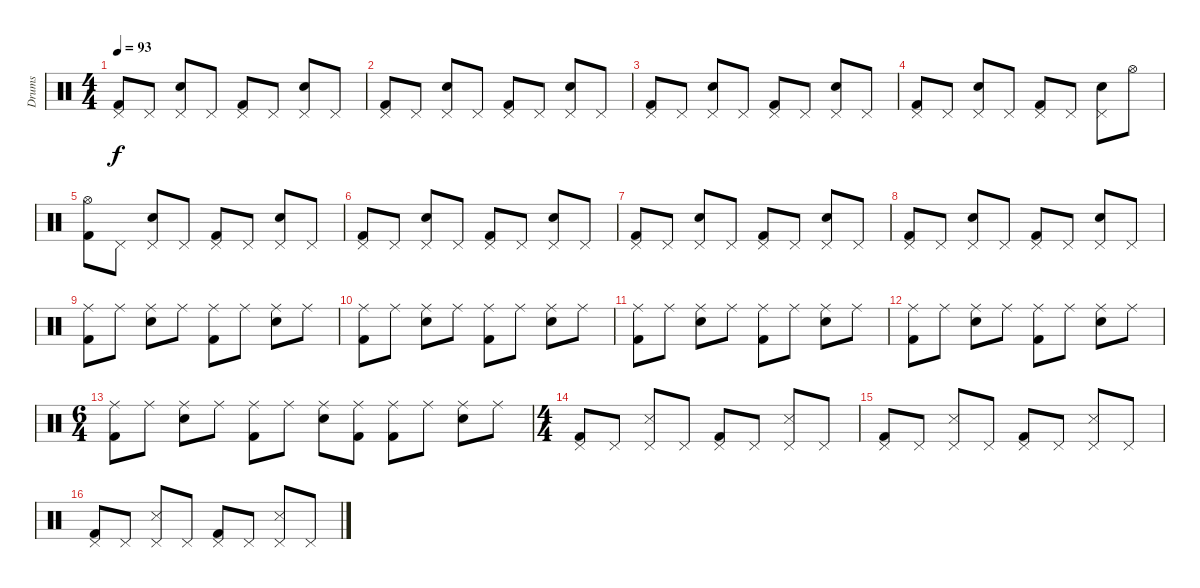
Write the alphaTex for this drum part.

\track ("Drums" "Drums") {instrument percussion}
\staff {score}
\articulation defaults
\ts (4 4)
\tempo 93
\clef neutral
\ks c
("Pedal Hi-Hat (hit)" "Kick (hit) 2").8{dy f} "Pedal Hi-Hat (hit)".8 ("Pedal Hi-Hat (hit)" "Electric Snare (hit)").8 "Pedal Hi-Hat (hit)".8 ("Pedal Hi-Hat (hit)" "Kick (hit) 2").8 "Pedal Hi-Hat (hit)".8 ("Pedal Hi-Hat (hit)" "Electric Snare (hit)").8 "Pedal Hi-Hat (hit)".8 |
("Pedal Hi-Hat (hit)" "Kick (hit) 2").8 "Pedal Hi-Hat (hit)".8 ("Pedal Hi-Hat (hit)" "Electric Snare (hit)").8 "Pedal Hi-Hat (hit)".8 ("Pedal Hi-Hat (hit)" "Kick (hit) 2").8 "Pedal Hi-Hat (hit)".8 ("Pedal Hi-Hat (hit)" "Electric Snare (hit)").8 "Pedal Hi-Hat (hit)".8 |
("Pedal Hi-Hat (hit)" "Kick (hit) 2").8 "Pedal Hi-Hat (hit)".8 ("Pedal Hi-Hat (hit)" "Electric Snare (hit)").8 "Pedal Hi-Hat (hit)".8 ("Pedal Hi-Hat (hit)" "Kick (hit) 2").8 "Pedal Hi-Hat (hit)".8 ("Pedal Hi-Hat (hit)" "Electric Snare (hit)").8 "Pedal Hi-Hat (hit)".8 |
("Pedal Hi-Hat (hit)" "Kick (hit) 2").8 "Pedal Hi-Hat (hit)".8 ("Pedal Hi-Hat (hit)" "Electric Snare (hit)").8 "Pedal Hi-Hat (hit)".8 ("Pedal Hi-Hat (hit)" "Kick (hit) 2").8 "Pedal Hi-Hat (hit)".8 ("Pedal Hi-Hat (hit)" "Electric Snare (hit)").8 "Hi-Hat (open)".8 |
("Hi-Hat (open)" "Kick (hit) 2").8 "Pedal Hi-Hat (hit)".8 ("Pedal Hi-Hat (hit)" "Electric Snare (hit)").8 "Pedal Hi-Hat (hit)".8 ("Pedal Hi-Hat (hit)" "Kick (hit) 2").8 "Pedal Hi-Hat (hit)".8 ("Pedal Hi-Hat (hit)" "Electric Snare (hit)").8 "Pedal Hi-Hat (hit)".8 |
("Pedal Hi-Hat (hit)" "Kick (hit) 2").8 "Pedal Hi-Hat (hit)".8 ("Pedal Hi-Hat (hit)" "Electric Snare (hit)").8 "Pedal Hi-Hat (hit)".8 ("Pedal Hi-Hat (hit)" "Kick (hit) 2").8 "Pedal Hi-Hat (hit)".8 ("Pedal Hi-Hat (hit)" "Electric Snare (hit)").8 "Pedal Hi-Hat (hit)".8 |
("Pedal Hi-Hat (hit)" "Kick (hit) 2").8 "Pedal Hi-Hat (hit)".8 ("Pedal Hi-Hat (hit)" "Electric Snare (hit)").8 "Pedal Hi-Hat (hit)".8 ("Pedal Hi-Hat (hit)" "Kick (hit) 2").8 "Pedal Hi-Hat (hit)".8 ("Pedal Hi-Hat (hit)" "Electric Snare (hit)").8 "Pedal Hi-Hat (hit)".8 |
("Pedal Hi-Hat (hit)" "Kick (hit) 2").8 "Pedal Hi-Hat (hit)".8 ("Pedal Hi-Hat (hit)" "Electric Snare (hit)").8 "Pedal Hi-Hat (hit)".8 ("Pedal Hi-Hat (hit)" "Kick (hit) 2").8 "Pedal Hi-Hat (hit)".8 ("Pedal Hi-Hat (hit)" "Electric Snare (hit)").8 "Pedal Hi-Hat (hit)".8 |
("Ride (middle)" "Kick (hit) 2").8 "Ride (middle)".8 ("Ride (middle)" "Electric Snare (hit)").8 "Ride (middle)".8 ("Ride (middle)" "Kick (hit) 2").8 "Ride (middle)".8 ("Ride (middle)" "Electric Snare (hit)").8 "Ride (middle)".8 |
("Ride (middle)" "Kick (hit) 2").8 "Ride (middle)".8 ("Ride (middle)" "Electric Snare (hit)").8 "Ride (middle)".8 ("Ride (middle)" "Kick (hit) 2").8 "Ride (middle)".8 ("Ride (middle)" "Electric Snare (hit)").8 "Ride (middle)".8 |
("Ride (middle)" "Kick (hit) 2").8 "Ride (middle)".8 ("Ride (middle)" "Electric Snare (hit)").8 "Ride (middle)".8 ("Ride (middle)" "Kick (hit) 2").8 "Ride (middle)".8 ("Ride (middle)" "Electric Snare (hit)").8 "Ride (middle)".8 |
("Ride (middle)" "Kick (hit) 2").8 "Ride (middle)".8 ("Ride (middle)" "Electric Snare (hit)").8 "Ride (middle)".8 ("Ride (middle)" "Kick (hit) 2").8 "Ride (middle)".8 ("Ride (middle)" "Electric Snare (hit)").8 "Ride (middle)".8 |
\ts (6 4)
("Ride (middle)" "Kick (hit) 2").8 "Ride (middle)".8 ("Ride (middle)" "Electric Snare (hit)").8 "Ride (middle)".8 ("Ride (middle)" "Kick (hit) 2").8 "Ride (middle)".8 ("Ride (middle)" "Electric Snare (hit)").8 ("Ride (middle)" "Kick (hit) 2").8 ("Ride (middle)" "Kick (hit) 2").8 "Ride (middle)".8 ("Ride (middle)" "Electric Snare (hit)").8 "Ride (middle)".8 |
\ts (4 4)
("Pedal Hi-Hat (hit)" "Kick (hit) 2").8 "Pedal Hi-Hat (hit)".8 ("Pedal Hi-Hat (hit)" "Snare (side stick) 3").8 "Pedal Hi-Hat (hit)".8 ("Pedal Hi-Hat (hit)" "Kick (hit) 2").8 "Pedal Hi-Hat (hit)".8 ("Pedal Hi-Hat (hit)" "Snare (side stick) 3").8 "Pedal Hi-Hat (hit)".8 |
("Pedal Hi-Hat (hit)" "Kick (hit) 2").8 "Pedal Hi-Hat (hit)".8 ("Pedal Hi-Hat (hit)" "Snare (side stick) 3").8 "Pedal Hi-Hat (hit)".8 ("Pedal Hi-Hat (hit)" "Kick (hit) 2").8 "Pedal Hi-Hat (hit)".8 ("Pedal Hi-Hat (hit)" "Snare (side stick) 3").8 "Pedal Hi-Hat (hit)".8 |
("Pedal Hi-Hat (hit)" "Kick (hit) 2").8 "Pedal Hi-Hat (hit)".8 ("Pedal Hi-Hat (hit)" "Snare (side stick) 3").8 "Pedal Hi-Hat (hit)".8 ("Pedal Hi-Hat (hit)" "Kick (hit) 2").8 "Pedal Hi-Hat (hit)".8 ("Pedal Hi-Hat (hit)" "Snare (side stick) 3").8 "Pedal Hi-Hat (hit)".8
